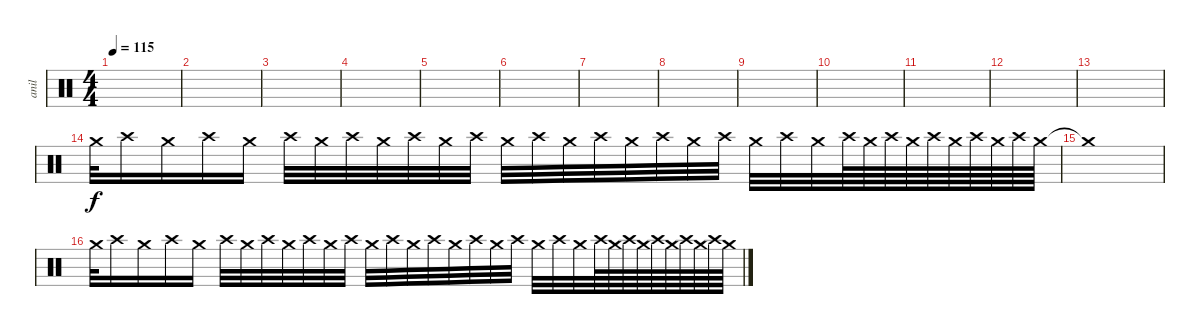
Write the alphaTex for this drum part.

\track ("anil " "anil ") {instrument percussion}
\staff {score}
\articulation defaults
\ts (4 4)
\tempo 115
\clef neutral
\ks c
|
|
|
|
|
|
|
|
|
|
|
|
|
"Crash medium (hit)".32{volume 2} "Crash high (hit)".16{volume 15} "Crash medium (hit)".16 "Crash high (hit)".16 "Crash medium (hit)".16 "Crash high (hit)".32 "Crash medium (hit)".32 "Crash high (hit)".32 "Crash medium (hit)".32 "Crash high (hit)".32 "Crash medium (hit)".32 "Crash high (hit)".32 "Crash medium (hit)".32 "Crash high (hit)".32 "Crash medium (hit)".32 "Crash high (hit)".32 "Crash medium (hit)".32 "Crash high (hit)".32 "Crash medium (hit)".32 "Crash high (hit)".32 "Crash medium (hit)".32 "Crash high (hit)".32 "Crash medium (hit)".32 "Crash high (hit)".64 "Crash medium (hit)".64 "Crash high (hit)".64 "Crash medium (hit)".64 "Crash high (hit)".64 "Crash medium (hit)".64 "Crash high (hit)".64 "Crash medium (hit)".64 "Crash high (hit)".64 "Crash medium (hit)".64 |
"Crash medium (hit)"{t}.1 |
"Crash medium (hit)".32{volume 2} "Crash high (hit)".16{volume 15} "Crash medium (hit)".16 "Crash high (hit)".16 "Crash medium (hit)".16 "Crash high (hit)".32 "Crash medium (hit)".32 "Crash high (hit)".32 "Crash medium (hit)".32 "Crash high (hit)".32 "Crash medium (hit)".32 "Crash high (hit)".32 "Crash medium (hit)".32 "Crash high (hit)".32 "Crash medium (hit)".32 "Crash high (hit)".32 "Crash medium (hit)".32 "Crash high (hit)".32 "Crash medium (hit)".32 "Crash high (hit)".32 "Crash medium (hit)".32 "Crash high (hit)".32 "Crash medium (hit)".32 "Crash high (hit)".64 "Crash medium (hit)".64 "Crash high (hit)".64 "Crash medium (hit)".64 "Crash high (hit)".64 "Crash medium (hit)".64 "Crash high (hit)".64 "Crash medium (hit)".64 "Crash high (hit)".64 "Crash medium (hit)".64
